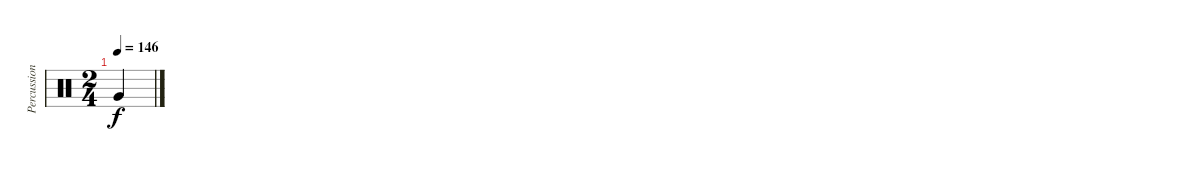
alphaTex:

\track ("Percussions" "Percussion") {instrument percussion}
\staff {score}
\articulation defaults
\ts (2 4)
\tempo 146
\clef neutral
\ks c "Very Low Tom (hit)".4{dy f}
